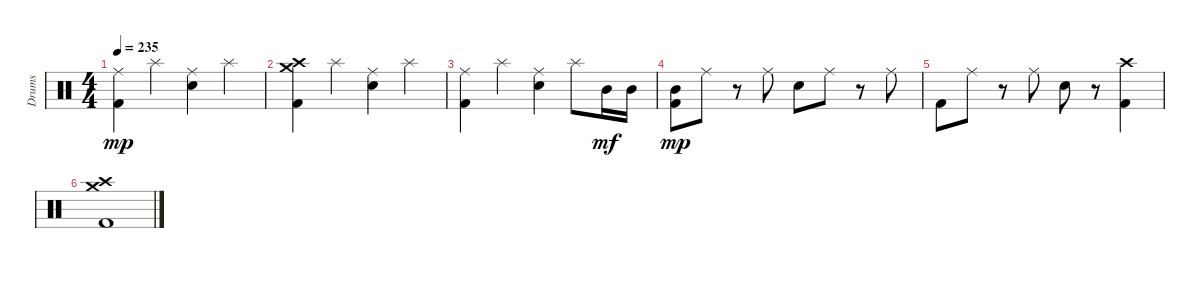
\track ("Drums" "Drums") {instrument percussion}
\staff {score}
\articulation defaults
\ts (4 4)
\tempo 235
\clef neutral
\ks c
("Ride (middle)" "Kick (hit) 2").4{dy mp} "Splash (hit)".4 ("Ride (middle)" "Snare (hit) 2").4 "Splash (hit)".4 |
("Crash medium (hit)" "Crash high (hit)" "Kick (hit) 2").4 "Splash (hit)".4 ("Ride (middle)" "Snare (hit) 2").4 "Splash (hit)".4 |
("Ride (middle)" "Kick (hit) 2").4 "Splash (hit)".4 ("Ride (middle)" "Snare (hit) 2").4 "Splash (hit)".8 "Mid Tom (hit)".16{dy mf} "Mid Tom (hit)".16 |
("Mid Tom (hit)" "Kick (hit) 2").8{dy mp} "Ride (middle)".8 r.8 "Ride (middle)".8 "Snare (hit) 2".8 "Ride (middle)".8 r.8 "Ride (middle)".8 |
"Kick (hit) 2".8 "Ride (middle)".8 r.8 "Ride (middle)".8 "Snare (hit) 2".8 r.8 ("Crash high (hit)" "Kick (hit) 2").4 |
("Crash high (hit)" "Crash medium (hit)" "Kick (hit) 2").1
